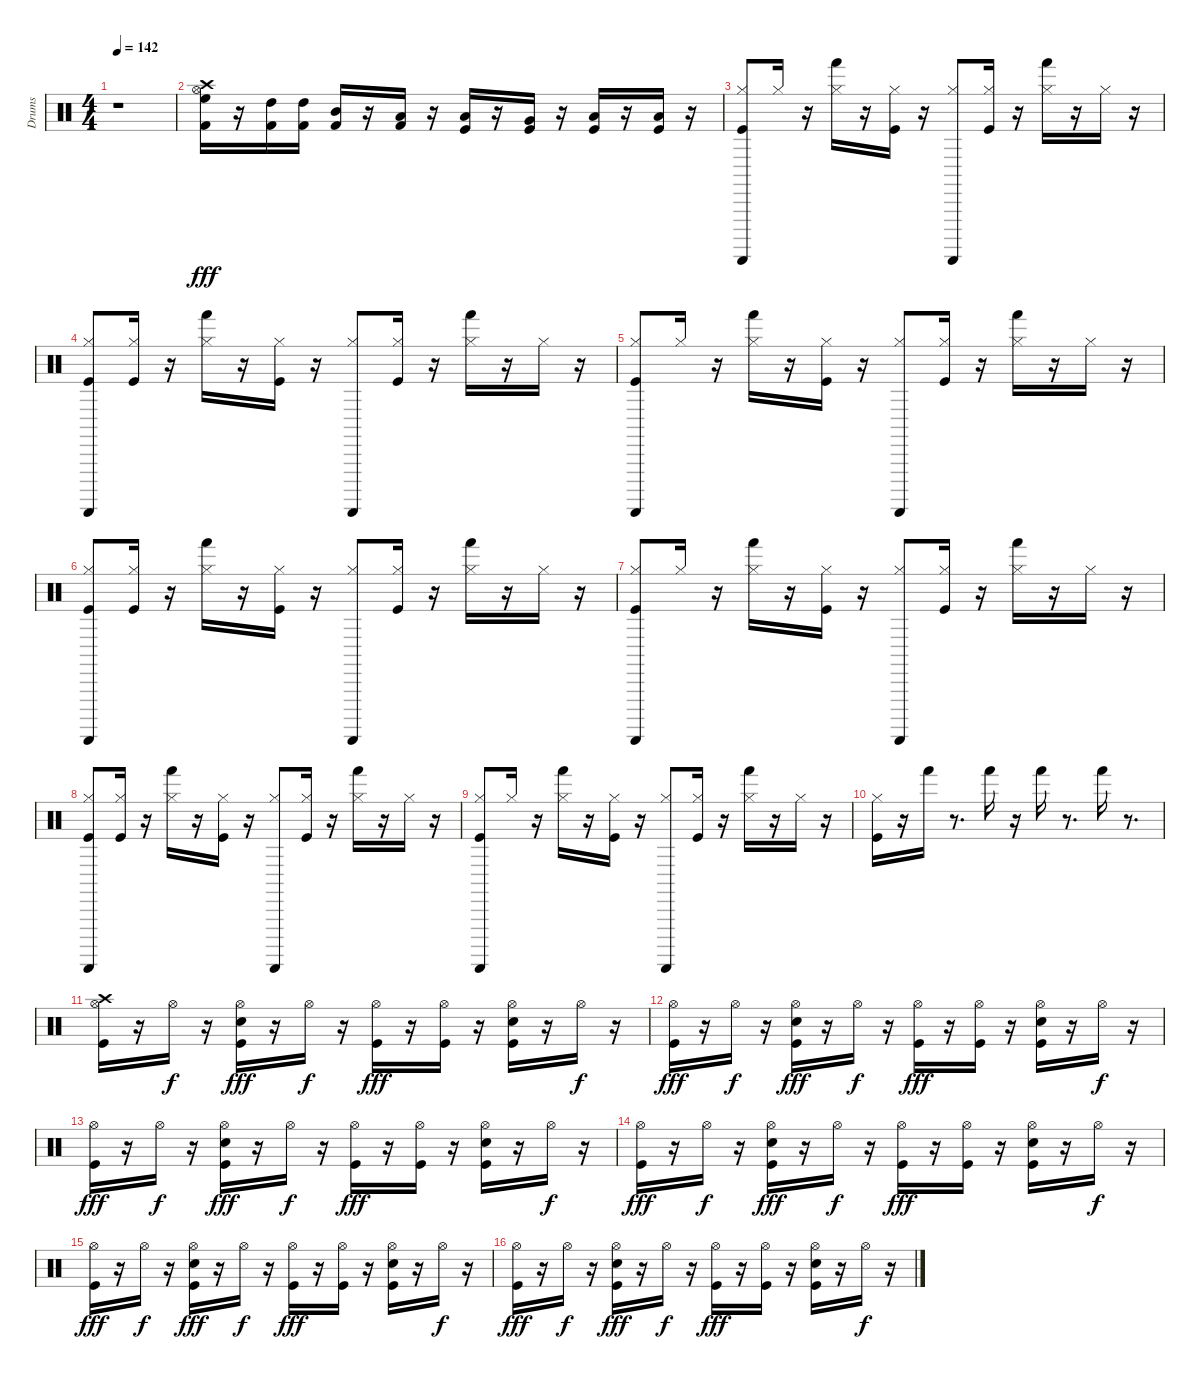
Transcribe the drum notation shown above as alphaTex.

\track ("Drums" "Drums") {instrument percussion}
\staff {score}
\articulation defaults
\ts (4 4)
\tempo 142
\clef neutral
\ks c
r.1{dy fff} |
("Kick (hit) 2" "High Floor Tom (hit)" "Hi-Hat (open)" "Crash high (hit)").16 r.16 ("Kick (hit) 2" "High Tom (hit)").16 ("Kick (hit) 2" "High Tom (hit)").16 ("Kick (hit) 2" "Mid Tom (hit)").16 r.16 ("Kick (hit) 2" "Low Tom (hit)").16 r.16 ("Kick (hit)" "Low Tom (hit)").16 r.16 ("Kick (hit)" "Very Low Tom (hit)").16 r.16 ("Kick (hit)" "Low Floor Tom (hit)").16 r.16 ("Kick (hit)" "Low Floor Tom (hit)").16 r.16 |
("Kick (hit)" "Hi-Hat (closed)" "Guiro (scrap-return)").8 "Hi-Hat (closed)".16 r.16 ("Hi-Hat (closed)" "Hand (hit)").16 r.16 ("Kick (hit)" "Hi-Hat (closed)").16 r.16 ("Hi-Hat (closed)" "Guiro (scrap-return)").8 ("Kick (hit)" "Hi-Hat (closed)").16 r.16 ("Hi-Hat (closed)" "Hand (hit)").16 r.16 "Hi-Hat (closed)".16 r.16 |
("Kick (hit)" "Hi-Hat (closed)" "Guiro (scrap-return)").8 ("Kick (hit)" "Hi-Hat (closed)").16 r.16 ("Hi-Hat (closed)" "Hand (hit)").16 r.16 ("Kick (hit)" "Hi-Hat (closed)").16 r.16 ("Hi-Hat (closed)" "Guiro (scrap-return)").8 ("Kick (hit)" "Hi-Hat (closed)").16 r.16 ("Hi-Hat (closed)" "Hand (hit)").16 r.16 "Hi-Hat (closed)".16 r.16 |
("Guiro (scrap-return)" "Hi-Hat (closed)" "Kick (hit)").8 "Hi-Hat (closed)".16 r.16 ("Hi-Hat (closed)" "Hand (hit)").16 r.16 ("Kick (hit)" "Hi-Hat (closed)").16 r.16 ("Hi-Hat (closed)" "Guiro (scrap-return)").8 ("Kick (hit)" "Hi-Hat (closed)").16 r.16 ("Hi-Hat (closed)" "Hand (hit)").16 r.16 "Hi-Hat (closed)".16 r.16 |
("Kick (hit)" "Hi-Hat (closed)" "Guiro (scrap-return)").8 ("Kick (hit)" "Hi-Hat (closed)").16 r.16 ("Hi-Hat (closed)" "Hand (hit)").16 r.16 ("Kick (hit)" "Hi-Hat (closed)").16 r.16 ("Hi-Hat (closed)" "Guiro (scrap-return)").8 ("Kick (hit)" "Hi-Hat (closed)").16 r.16 ("Hi-Hat (closed)" "Hand (hit)").16 r.16 "Hi-Hat (closed)".16 r.16 |
("Guiro (scrap-return)" "Hi-Hat (closed)" "Kick (hit)").8 "Hi-Hat (closed)".16 r.16 ("Hi-Hat (closed)" "Hand (hit)").16 r.16 ("Kick (hit)" "Hi-Hat (closed)").16 r.16 ("Hi-Hat (closed)" "Guiro (scrap-return)").8 ("Kick (hit)" "Hi-Hat (closed)").16 r.16 ("Hi-Hat (closed)" "Hand (hit)").16 r.16 "Hi-Hat (closed)".16 r.16 |
("Kick (hit)" "Hi-Hat (closed)" "Guiro (scrap-return)").8 ("Kick (hit)" "Hi-Hat (closed)").16 r.16 ("Hi-Hat (closed)" "Hand (hit)").16 r.16 ("Kick (hit)" "Hi-Hat (closed)").16 r.16 ("Hi-Hat (closed)" "Guiro (scrap-return)").8 ("Kick (hit)" "Hi-Hat (closed)").16 r.16 ("Hi-Hat (closed)" "Hand (hit)").16 r.16 "Hi-Hat (closed)".16 r.16 |
("Guiro (scrap-return)" "Hi-Hat (closed)" "Kick (hit)").8 "Hi-Hat (closed)".16 r.16 ("Hi-Hat (closed)" "Hand (hit)").16 r.16 ("Kick (hit)" "Hi-Hat (closed)").16 r.16 ("Hi-Hat (closed)" "Guiro (scrap-return)").8 ("Kick (hit)" "Hi-Hat (closed)").16 r.16 ("Hi-Hat (closed)" "Hand (hit)").16 r.16 "Hi-Hat (closed)".16 r.16 |
("Kick (hit)" "Hi-Hat (closed)").16 r.16 "Hand (hit)".16 r.8{d} "Hand (hit)".16 r.16 "Hand (hit)".16 r.8{d} "Hand (hit)".16 r.8{d} |
("Crash high (hit)" "Hi-Hat (open)" "Kick (hit)").16 r.16 "Hi-Hat (open)".16{dy f} r.16 ("Snare (hit) 2" "Kick (hit)" "Hi-Hat (open)").16{dy fff} r.16 "Hi-Hat (open)".16{dy f} r.16 ("Kick (hit)" "Hi-Hat (open)").16{dy fff} r.16 ("Kick (hit)" "Hi-Hat (open)").16 r.16 ("Kick (hit)" "Snare (hit) 2" "Hi-Hat (open)").16 r.16 "Hi-Hat (open)".16{dy f} r.16 |
("Kick (hit)" "Hi-Hat (open)").16{dy fff} r.16 "Hi-Hat (open)".16{dy f} r.16 ("Snare (hit) 2" "Kick (hit)" "Hi-Hat (open)").16{dy fff} r.16 "Hi-Hat (open)".16{dy f} r.16 ("Kick (hit)" "Hi-Hat (open)").16{dy fff} r.16 ("Kick (hit)" "Hi-Hat (open)").16 r.16 ("Kick (hit)" "Snare (hit) 2" "Hi-Hat (open)").16 r.16 "Hi-Hat (open)".16{dy f} r.16 |
("Kick (hit)" "Hi-Hat (open)").16{dy fff} r.16 "Hi-Hat (open)".16{dy f} r.16 ("Snare (hit) 2" "Kick (hit)" "Hi-Hat (open)").16{dy fff} r.16 "Hi-Hat (open)".16{dy f} r.16 ("Kick (hit)" "Hi-Hat (open)").16{dy fff} r.16 ("Kick (hit)" "Hi-Hat (open)").16 r.16 ("Kick (hit)" "Snare (hit) 2" "Hi-Hat (open)").16 r.16 "Hi-Hat (open)".16{dy f} r.16 |
("Kick (hit)" "Hi-Hat (open)").16{dy fff} r.16 "Hi-Hat (open)".16{dy f} r.16 ("Snare (hit) 2" "Kick (hit)" "Hi-Hat (open)").16{dy fff} r.16 "Hi-Hat (open)".16{dy f} r.16 ("Kick (hit)" "Hi-Hat (open)").16{dy fff} r.16 ("Kick (hit)" "Hi-Hat (open)").16 r.16 ("Kick (hit)" "Snare (hit) 2" "Hi-Hat (open)").16 r.16 "Hi-Hat (open)".16{dy f} r.16 |
("Kick (hit)" "Hi-Hat (open)").16{dy fff} r.16 "Hi-Hat (open)".16{dy f} r.16 ("Snare (hit) 2" "Kick (hit)" "Hi-Hat (open)").16{dy fff} r.16 "Hi-Hat (open)".16{dy f} r.16 ("Kick (hit)" "Hi-Hat (open)").16{dy fff} r.16 ("Kick (hit)" "Hi-Hat (open)").16 r.16 ("Kick (hit)" "Snare (hit) 2" "Hi-Hat (open)").16 r.16 "Hi-Hat (open)".16{dy f} r.16 |
("Kick (hit)" "Hi-Hat (open)").16{dy fff} r.16 "Hi-Hat (open)".16{dy f} r.16 ("Snare (hit) 2" "Kick (hit)" "Hi-Hat (open)").16{dy fff} r.16 "Hi-Hat (open)".16{dy f} r.16 ("Kick (hit)" "Hi-Hat (open)").16{dy fff} r.16 ("Kick (hit)" "Hi-Hat (open)").16 r.16 ("Kick (hit)" "Snare (hit) 2" "Hi-Hat (open)").16 r.16 "Hi-Hat (open)".16{dy f} r.16
